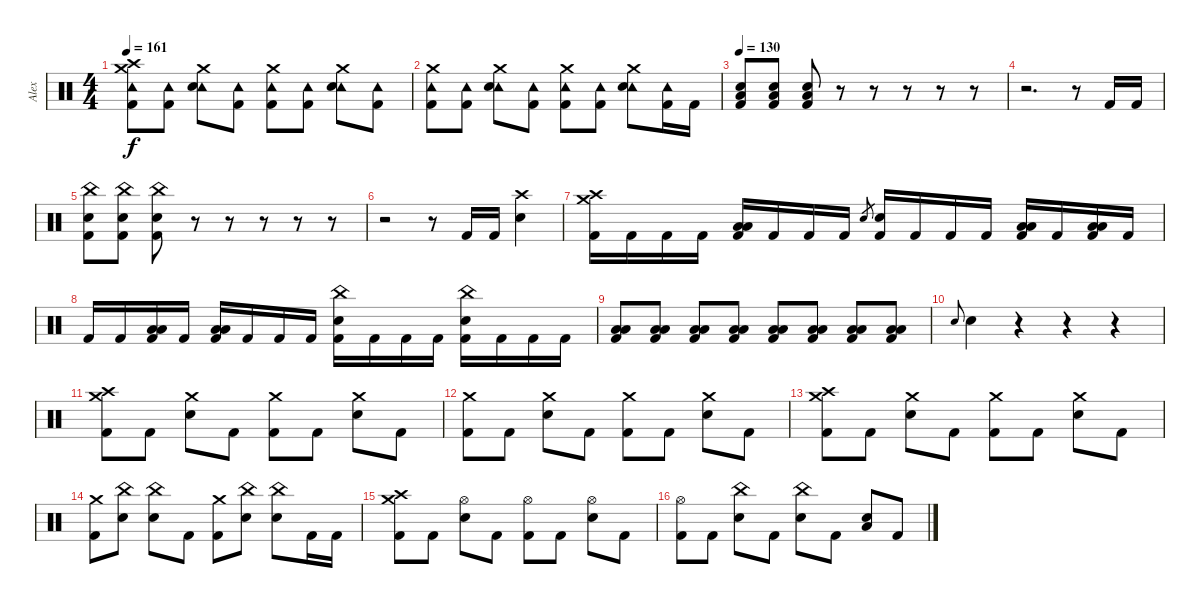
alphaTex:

\track ("Alex" "Alex") {instrument percussion}
\staff
\articulation defaults
\ts (4 4)
\tempo 161
\clef neutral
\ks c
("Crash medium (hit)" "Crash high (hit)" "Tambourine (hit)" "Kick (hit) 2").8{dy f} ("Tambourine (hit)" "Kick (hit) 2").8 ("Crash medium (hit)" "Tambourine (hit)" "Electric Snare (hit)").8 ("Tambourine (hit)" "Kick (hit) 2").8 ("Crash medium (hit)" "Tambourine (hit)" "Kick (hit) 2").8 ("Tambourine (hit)" "Kick (hit) 2").8 ("Crash medium (hit)" "Tambourine (hit)" "Electric Snare (hit)").8 ("Tambourine (hit)" "Kick (hit) 2").8 |
("Crash medium (hit)" "Tambourine (hit)" "Kick (hit) 2").8 ("Tambourine (hit)" "Kick (hit) 2").8 ("Crash medium (hit)" "Tambourine (hit)" "Electric Snare (hit)").8 ("Tambourine (hit)" "Kick (hit) 2").8 ("Crash medium (hit)" "Tambourine (hit)" "Kick (hit) 2").8 ("Tambourine (hit)" "Kick (hit) 2").8 ("Crash medium (hit)" "Tambourine (hit)" "Electric Snare (hit)").8 ("Tambourine (hit)" "Kick (hit) 2").16 "Kick (hit) 2".16 |
\tempo 130
("Electric Snare (hit)" "Low Floor Tom (hit)" "Kick (hit) 2").8 ("Electric Snare (hit)" "Low Floor Tom (hit)" "Kick (hit) 2").8 ("Electric Snare (hit)" "Low Floor Tom (hit)" "Kick (hit) 2").8 r.8 r.8 r.8 r.8 r.8 |
r.2{d} r.8 "Kick (hit) 2".16 "Kick (hit) 2".16 |
("China (hit)" "Electric Snare (hit)" "Kick (hit) 2").8 ("China (hit)" "Electric Snare (hit)" "Kick (hit) 2").8 ("China (hit)" "Electric Snare (hit)" "Kick (hit) 2").8 r.8 r.8 r.8 r.8 r.8 |
r.2 r.8 "Kick (hit) 2".16 "Kick (hit) 2".16 ("Crash high (hit)" "Electric Snare (hit)").4 |
("Crash medium (hit)" "Crash high (hit)" "Kick (hit) 2").16 "Kick (hit) 2".16 "Kick (hit) 2".16 "Kick (hit) 2".16 ("Low Tom (hit)" "Low Floor Tom (hit)" "Kick (hit) 2").16 "Kick (hit) 2".16 "Kick (hit) 2".16 "Kick (hit) 2".16 "Electric Snare (hit)".8{gr} ("Electric Snare (hit)" "Kick (hit) 2").16 "Kick (hit) 2".16 "Kick (hit) 2".16 "Kick (hit) 2".16 ("Low Tom (hit)" "Low Floor Tom (hit)" "Kick (hit) 2").16 "Kick (hit) 2".16 ("Low Tom (hit)" "Low Floor Tom (hit)" "Kick (hit) 2").16 "Kick (hit) 2".16 |
"Kick (hit) 2".16 "Kick (hit) 2".16 ("Low Tom (hit)" "Low Floor Tom (hit)" "Kick (hit) 2").16 "Kick (hit) 2".16 ("Low Tom (hit)" "Low Floor Tom (hit)" "Kick (hit) 2").16 "Kick (hit) 2".16 "Kick (hit) 2".16 "Kick (hit) 2".16 ("China (hit)" "Electric Snare (hit)" "Kick (hit) 2").16 "Kick (hit) 2".16 "Kick (hit) 2".16 "Kick (hit) 2".16 ("China (hit)" "Electric Snare (hit)" "Kick (hit) 2").16 "Kick (hit) 2".16 "Kick (hit) 2".16 "Kick (hit) 2".16 |
("Low Tom (hit)" "Low Floor Tom (hit)" "Kick (hit) 2").8 ("Low Tom (hit)" "Low Floor Tom (hit)" "Kick (hit) 2").8 ("Low Tom (hit)" "Low Floor Tom (hit)" "Kick (hit) 2").8 ("Low Tom (hit)" "Low Floor Tom (hit)" "Kick (hit) 2").8 ("Low Tom (hit)" "Low Floor Tom (hit)" "Kick (hit) 2").8 ("Low Tom (hit)" "Low Floor Tom (hit)" "Kick (hit) 2").8 ("Low Tom (hit)" "Low Floor Tom (hit)" "Kick (hit) 2").8 ("Low Tom (hit)" "Low Floor Tom (hit)" "Kick (hit) 2").8 |
"Electric Snare (hit)".8{gr onbeat} "Electric Snare (hit)".4 r.4 r.4 r.4 |
("Crash medium (hit)" "Crash high (hit)" "Kick (hit) 2").8 "Kick (hit) 2".8 ("Crash medium (hit)" "Electric Snare (hit)").8 "Kick (hit) 2".8 ("Crash medium (hit)" "Kick (hit) 2").8 "Kick (hit) 2".8 ("Crash medium (hit)" "Electric Snare (hit)").8 "Kick (hit) 2".8 |
("Crash medium (hit)" "Kick (hit) 2").8 "Kick (hit) 2".8 ("Crash medium (hit)" "Electric Snare (hit)").8 "Kick (hit) 2".8 ("Crash medium (hit)" "Kick (hit) 2").8 "Kick (hit) 2".8 ("Crash medium (hit)" "Electric Snare (hit)").8 "Kick (hit) 2".8 |
("Crash medium (hit)" "Crash high (hit)" "Kick (hit) 2").8 "Kick (hit) 2".8 ("Crash medium (hit)" "Electric Snare (hit)").8 "Kick (hit) 2".8 ("Crash medium (hit)" "Kick (hit) 2").8 "Kick (hit) 2".8 ("Crash medium (hit)" "Electric Snare (hit)").8 "Kick (hit) 2".8 |
("Crash medium (hit)" "Kick (hit) 2").8 ("China (hit)" "Electric Snare (hit)").8 ("China (hit)" "Electric Snare (hit)").8 "Kick (hit) 2".8 ("Crash medium (hit)" "Kick (hit) 2").8 ("China (hit)" "Electric Snare (hit)").8 ("China (hit)" "Electric Snare (hit)").8 "Kick (hit) 2".16 "Kick (hit) 2".16 |
("Crash medium (hit)" "Crash high (hit)" "Kick (hit) 2").8 "Kick (hit) 2".8 ("Hi-Hat (open)" "Electric Snare (hit)").8 "Kick (hit) 2".8 ("Hi-Hat (open)" "Kick (hit) 2").8 "Kick (hit) 2".8 ("Hi-Hat (open)" "Electric Snare (hit)").8 "Kick (hit) 2".8 |
("Hi-Hat (open)" "Kick (hit) 2").8 "Kick (hit) 2".8 ("China (hit)" "Electric Snare (hit)").8 "Kick (hit) 2".8 ("China (hit)" "Electric Snare (hit)").8 "Kick (hit) 2".8 ("Electric Snare (hit)" "Low Floor Tom (hit)").8 "Kick (hit) 2".8
